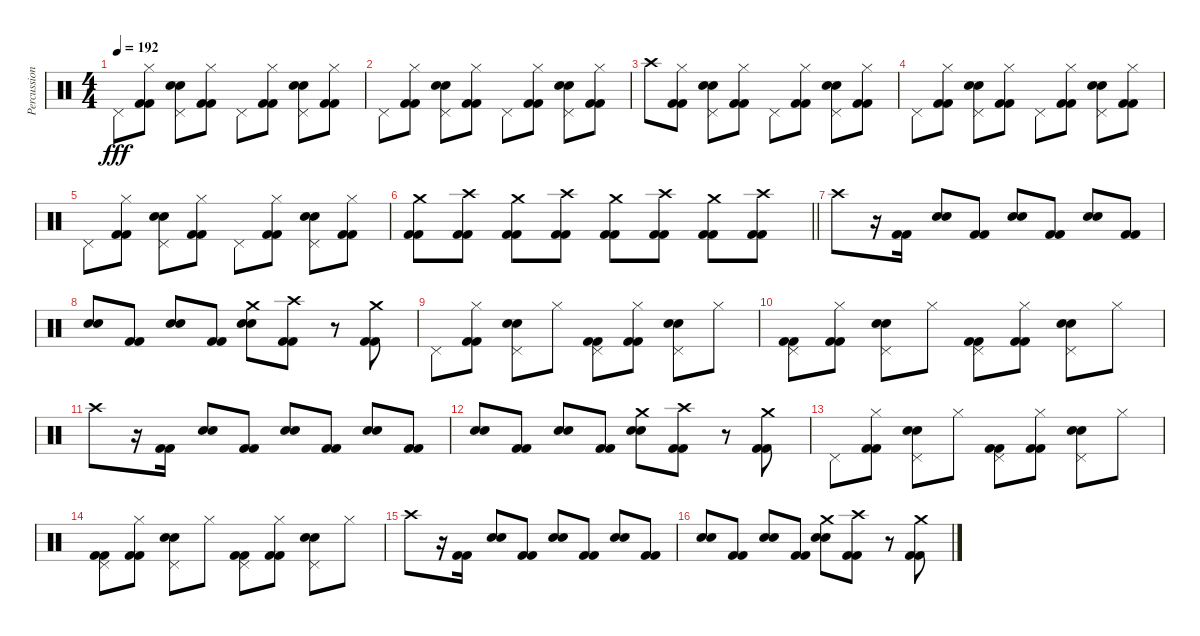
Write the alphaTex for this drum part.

\track ("Percussion" "Percussion") {instrument percussion}
\staff {score}
\articulation defaults
\ts (4 4)
\tempo 192
\clef neutral
\ks c "Pedal Hi-Hat (hit)".8{dy fff}
("Hi-Hat (closed)" "Kick (hit) 2" "Kick (hit) 2").8 ("Pedal Hi-Hat (hit)" "Snare (hit) 2" "Electric Snare (hit)").8 ("Hi-Hat (closed)" "Kick (hit) 2" "Kick (hit) 2").8 "Pedal Hi-Hat (hit)".8 ("Hi-Hat (closed)" "Kick (hit) 2" "Kick (hit) 2").8 ("Pedal Hi-Hat (hit)" "Snare (hit) 2" "Electric Snare (hit)").8 ("Hi-Hat (closed)" "Kick (hit) 2" "Kick (hit) 2").8 |
"Pedal Hi-Hat (hit)".8 ("Hi-Hat (closed)" "Kick (hit) 2" "Kick (hit) 2").8 ("Pedal Hi-Hat (hit)" "Snare (hit) 2" "Electric Snare (hit)").8 ("Hi-Hat (closed)" "Kick (hit) 2" "Kick (hit) 2").8 "Pedal Hi-Hat (hit)".8 ("Hi-Hat (closed)" "Kick (hit) 2" "Kick (hit) 2").8 ("Pedal Hi-Hat (hit)" "Snare (hit) 2" "Electric Snare (hit)").8 ("Hi-Hat (closed)" "Kick (hit) 2" "Kick (hit) 2").8 |
"Crash high (hit)".8 ("Hi-Hat (closed)" "Kick (hit) 2" "Kick (hit) 2").8 ("Pedal Hi-Hat (hit)" "Snare (hit) 2" "Electric Snare (hit)").8 ("Hi-Hat (closed)" "Kick (hit) 2" "Kick (hit) 2").8 "Pedal Hi-Hat (hit)".8 ("Hi-Hat (closed)" "Kick (hit) 2" "Kick (hit) 2").8 ("Pedal Hi-Hat (hit)" "Snare (hit) 2" "Electric Snare (hit)").8 ("Hi-Hat (closed)" "Kick (hit) 2" "Kick (hit) 2").8 |
"Pedal Hi-Hat (hit)".8 ("Hi-Hat (closed)" "Kick (hit) 2" "Kick (hit) 2").8 ("Pedal Hi-Hat (hit)" "Snare (hit) 2" "Electric Snare (hit)").8 ("Hi-Hat (closed)" "Kick (hit) 2" "Kick (hit) 2").8 "Pedal Hi-Hat (hit)".8 ("Hi-Hat (closed)" "Kick (hit) 2" "Kick (hit) 2").8 ("Pedal Hi-Hat (hit)" "Snare (hit) 2" "Electric Snare (hit)").8 ("Hi-Hat (closed)" "Kick (hit) 2" "Kick (hit) 2").8 |
"Pedal Hi-Hat (hit)".8 ("Hi-Hat (closed)" "Kick (hit) 2" "Kick (hit) 2").8 ("Pedal Hi-Hat (hit)" "Snare (hit) 2" "Electric Snare (hit)").8 ("Hi-Hat (closed)" "Kick (hit) 2" "Kick (hit) 2").8 "Pedal Hi-Hat (hit)".8 ("Hi-Hat (closed)" "Kick (hit) 2" "Kick (hit) 2").8 ("Pedal Hi-Hat (hit)" "Snare (hit) 2" "Electric Snare (hit)").8 ("Hi-Hat (closed)" "Kick (hit) 2" "Kick (hit) 2").8 |
\barLineRight lightlight
("Crash medium (hit)" "Kick (hit) 2" "Kick (hit) 2").8 ("Crash high (hit)" "Kick (hit) 2" "Kick (hit) 2").8 ("Crash medium (hit)" "Kick (hit) 2" "Kick (hit) 2").8 ("Crash high (hit)" "Kick (hit) 2" "Kick (hit) 2").8 ("Crash medium (hit)" "Kick (hit) 2" "Kick (hit) 2").8 ("Crash high (hit)" "Kick (hit) 2" "Kick (hit) 2").8 ("Crash medium (hit)" "Kick (hit) 2" "Kick (hit) 2").8 ("Crash high (hit)" "Kick (hit) 2" "Kick (hit) 2").8 |
"Crash high (hit)".8 r.16 ("Kick (hit) 2" "Kick (hit) 2").16 ("Snare (hit) 2" "Electric Snare (hit)").8 ("Kick (hit) 2" "Kick (hit) 2").8 ("Snare (hit) 2" "Electric Snare (hit)").8 ("Kick (hit) 2" "Kick (hit) 2").8 ("Snare (hit) 2" "Electric Snare (hit)").8 ("Kick (hit) 2" "Kick (hit) 2").8 |
("Snare (hit) 2" "Electric Snare (hit)").8 ("Kick (hit) 2" "Kick (hit) 2").8 ("Snare (hit) 2" "Electric Snare (hit)").8 ("Kick (hit) 2" "Kick (hit) 2").8 ("Crash medium (hit)" "Snare (hit) 2" "Electric Snare (hit)").8 ("Crash high (hit)" "Kick (hit) 2" "Kick (hit) 2").8 r.8 ("Crash medium (hit)" "Kick (hit) 2" "Kick (hit) 2").8 |
"Pedal Hi-Hat (hit)".8 ("Hi-Hat (closed)" "Kick (hit) 2" "Kick (hit) 2").8 ("Pedal Hi-Hat (hit)" "Snare (hit) 2" "Electric Snare (hit)").8 "Hi-Hat (closed)".8 ("Pedal Hi-Hat (hit)" "Kick (hit) 2" "Kick (hit) 2").8 ("Hi-Hat (closed)" "Kick (hit) 2" "Kick (hit) 2").8 ("Pedal Hi-Hat (hit)" "Snare (hit) 2" "Electric Snare (hit)").8 "Hi-Hat (closed)".8 |
("Pedal Hi-Hat (hit)" "Kick (hit) 2" "Kick (hit) 2").8 ("Hi-Hat (closed)" "Kick (hit) 2" "Kick (hit) 2").8 ("Pedal Hi-Hat (hit)" "Snare (hit) 2" "Electric Snare (hit)").8 "Hi-Hat (closed)".8 ("Pedal Hi-Hat (hit)" "Kick (hit) 2" "Kick (hit) 2").8 ("Hi-Hat (closed)" "Kick (hit) 2" "Kick (hit) 2").8 ("Pedal Hi-Hat (hit)" "Snare (hit) 2" "Electric Snare (hit)").8 "Hi-Hat (closed)".8 |
"Crash high (hit)".8 r.16 ("Kick (hit) 2" "Kick (hit) 2").16 ("Snare (hit) 2" "Electric Snare (hit)").8 ("Kick (hit) 2" "Kick (hit) 2").8 ("Snare (hit) 2" "Electric Snare (hit)").8 ("Kick (hit) 2" "Kick (hit) 2").8 ("Snare (hit) 2" "Electric Snare (hit)").8 ("Kick (hit) 2" "Kick (hit) 2").8 |
("Snare (hit) 2" "Electric Snare (hit)").8 ("Kick (hit) 2" "Kick (hit) 2").8 ("Snare (hit) 2" "Electric Snare (hit)").8 ("Kick (hit) 2" "Kick (hit) 2").8 ("Crash medium (hit)" "Snare (hit) 2" "Electric Snare (hit)").8 ("Crash high (hit)" "Kick (hit) 2" "Kick (hit) 2").8 r.8 ("Crash medium (hit)" "Kick (hit) 2" "Kick (hit) 2").8 |
"Pedal Hi-Hat (hit)".8 ("Hi-Hat (closed)" "Kick (hit) 2" "Kick (hit) 2").8 ("Pedal Hi-Hat (hit)" "Snare (hit) 2" "Electric Snare (hit)").8 "Hi-Hat (closed)".8 ("Pedal Hi-Hat (hit)" "Kick (hit) 2" "Kick (hit) 2").8 ("Hi-Hat (closed)" "Kick (hit) 2" "Kick (hit) 2").8 ("Pedal Hi-Hat (hit)" "Snare (hit) 2" "Electric Snare (hit)").8 "Hi-Hat (closed)".8 |
("Pedal Hi-Hat (hit)" "Kick (hit) 2" "Kick (hit) 2").8 ("Hi-Hat (closed)" "Kick (hit) 2" "Kick (hit) 2").8 ("Pedal Hi-Hat (hit)" "Snare (hit) 2" "Electric Snare (hit)").8 "Hi-Hat (closed)".8 ("Pedal Hi-Hat (hit)" "Kick (hit) 2" "Kick (hit) 2").8 ("Hi-Hat (closed)" "Kick (hit) 2" "Kick (hit) 2").8 ("Pedal Hi-Hat (hit)" "Snare (hit) 2" "Electric Snare (hit)").8 "Hi-Hat (closed)".8 |
"Crash high (hit)".8 r.16 ("Kick (hit) 2" "Kick (hit) 2").16 ("Snare (hit) 2" "Electric Snare (hit)").8 ("Kick (hit) 2" "Kick (hit) 2").8 ("Snare (hit) 2" "Electric Snare (hit)").8 ("Kick (hit) 2" "Kick (hit) 2").8 ("Snare (hit) 2" "Electric Snare (hit)").8 ("Kick (hit) 2" "Kick (hit) 2").8 |
("Snare (hit) 2" "Electric Snare (hit)").8 ("Kick (hit) 2" "Kick (hit) 2").8 ("Snare (hit) 2" "Electric Snare (hit)").8 ("Kick (hit) 2" "Kick (hit) 2").8 ("Crash medium (hit)" "Snare (hit) 2" "Electric Snare (hit)").8 ("Crash high (hit)" "Kick (hit) 2" "Kick (hit) 2").8 r.8 ("Crash medium (hit)" "Kick (hit) 2" "Kick (hit) 2").8
